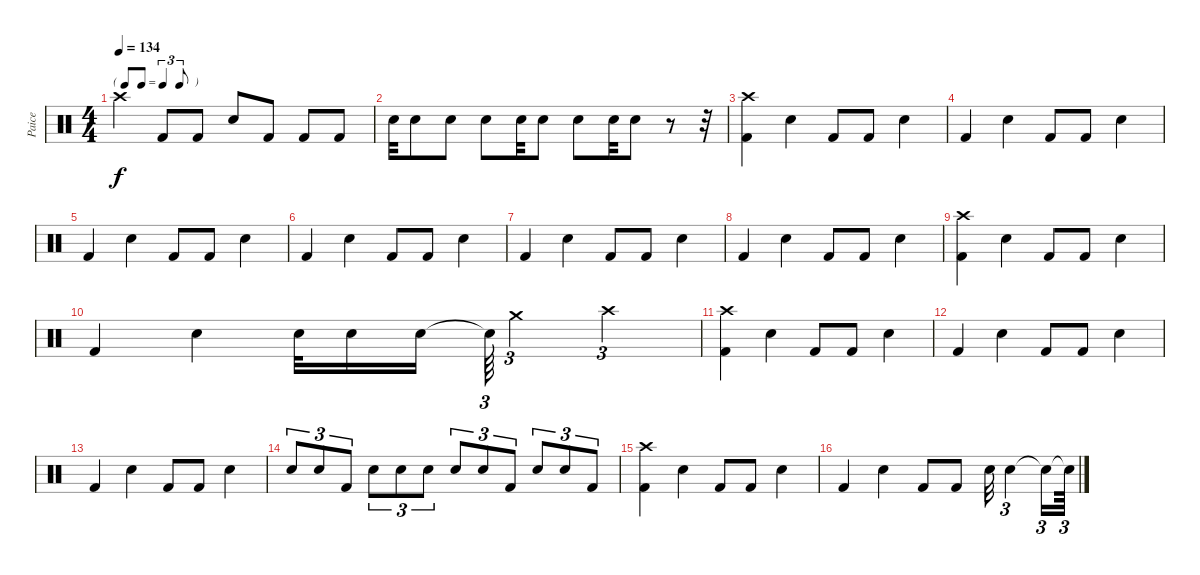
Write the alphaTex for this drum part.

\track ("Paice" "Paice") {instrument percussion}
\staff {score}
\articulation defaults
\ts (4 4)
\tf triplet8th
\tempo 134
\clef neutral
\ks c "Crash high (hit)".4{dy f} "Kick (hit) 2".8 "Kick (hit) 2".8 "Electric Snare (hit)".8 "Kick (hit) 2".8 "Kick (hit) 2".8 "Kick (hit) 2".8
|
"Electric Snare (hit)".32 "Electric Snare (hit)".8 "Electric Snare (hit)".8 "Electric Snare (hit)".8 "Electric Snare (hit)".32 "Electric Snare (hit)".8 "Electric Snare (hit)".8 "Electric Snare (hit)".32 "Electric Snare (hit)".8 r.8 r.32 |
("Kick (hit) 2" "Crash high (hit)").4 "Electric Snare (hit)".4 "Kick (hit) 2".8 "Kick (hit) 2".8 "Electric Snare (hit)".4 |
"Kick (hit) 2".4 "Electric Snare (hit)".4 "Kick (hit) 2".8 "Kick (hit) 2".8 "Electric Snare (hit)".4 |
"Kick (hit) 2".4 "Electric Snare (hit)".4 "Kick (hit) 2".8 "Kick (hit) 2".8 "Electric Snare (hit)".4 |
"Kick (hit) 2".4 "Electric Snare (hit)".4 "Kick (hit) 2".8 "Kick (hit) 2".8 "Electric Snare (hit)".4 |
"Kick (hit) 2".4 "Electric Snare (hit)".4 "Kick (hit) 2".8 "Kick (hit) 2".8 "Electric Snare (hit)".4 |
"Kick (hit) 2".4 "Electric Snare (hit)".4 "Kick (hit) 2".8 "Kick (hit) 2".8 "Electric Snare (hit)".4 |
("Kick (hit) 2" "Crash high (hit)").4 "Electric Snare (hit)".4 "Kick (hit) 2".8 "Kick (hit) 2".8 "Electric Snare (hit)".4 |
"Kick (hit) 2".4 "Electric Snare (hit)".4 "Electric Snare (hit)".32 "Electric Snare (hit)".16 "Electric Snare (hit)".16{beam splitsecondary} "Electric Snare (hit)"{t}.64{tu (3 2)} "Crash medium (hit)".4{tu (3 2)} "Crash high (hit)".4{tu (3 2)} |
("Kick (hit) 2" "Crash high (hit)").4 "Electric Snare (hit)".4 "Kick (hit) 2".8 "Kick (hit) 2".8 "Electric Snare (hit)".4 |
"Kick (hit) 2".4 "Electric Snare (hit)".4 "Kick (hit) 2".8 "Kick (hit) 2".8 "Electric Snare (hit)".4 |
"Kick (hit) 2".4 "Electric Snare (hit)".4 "Kick (hit) 2".8 "Kick (hit) 2".8 "Electric Snare (hit)".4 |
"Electric Snare (hit)".8{tu (3 2)} "Electric Snare (hit)".8{tu (3 2)} "Kick (hit) 2".8{tu (3 2)} "Electric Snare (hit)".8{tu (3 2)} "Electric Snare (hit)".8{tu (3 2)} "Electric Snare (hit)".8{tu (3 2)} "Electric Snare (hit)".8{tu (3 2)} "Electric Snare (hit)".8{tu (3 2)} "Kick (hit) 2".8{tu (3 2)} "Electric Snare (hit)".8{tu (3 2)} "Electric Snare (hit)".8{tu (3 2)} "Kick (hit) 2".8{tu (3 2)} |
("Kick (hit) 2" "Crash high (hit)").4 "Electric Snare (hit)".4 "Kick (hit) 2".8 "Kick (hit) 2".8 "Electric Snare (hit)".4 |
"Kick (hit) 2".4 "Electric Snare (hit)".4 "Kick (hit) 2".8 "Kick (hit) 2".8 "Electric Snare (hit)".32 "Electric Snare (hit)".4{tu (3 2)} "Electric Snare (hit)"{t}.16{tu (3 2)} "Electric Snare (hit)"{t}.64{tu (3 2)}
